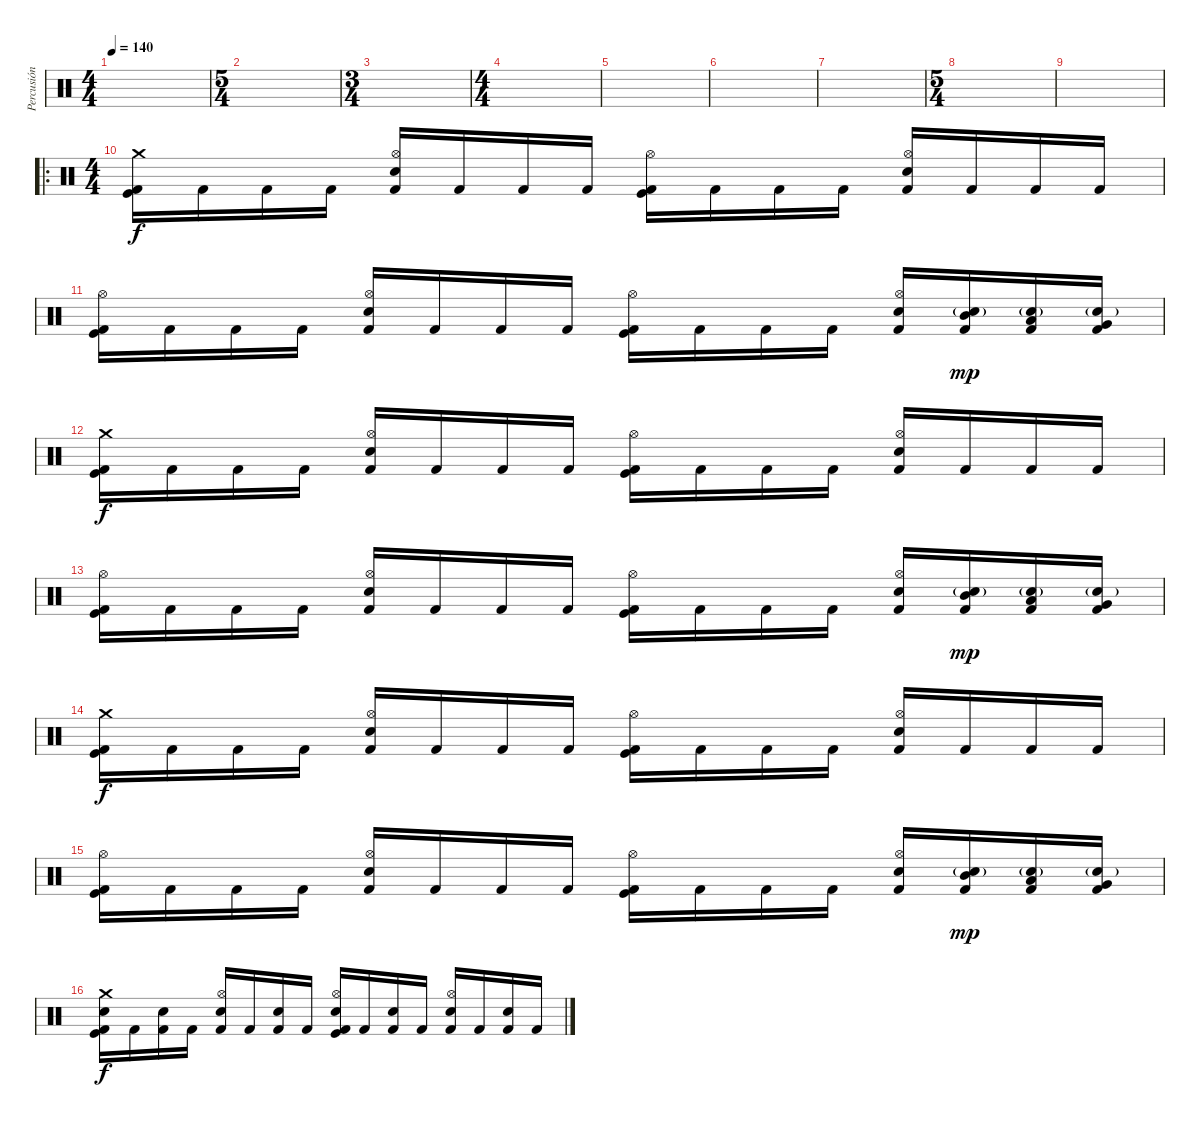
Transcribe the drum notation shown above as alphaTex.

\track ("Percusión" "Percusión") {instrument percussion}
\staff {score}
\articulation defaults
\ts (4 4)
\tempo 140
\clef neutral
\ks c
|
\ts (5 4)
|
\ts (3 4)
|
\ts (4 4)
|
|
|
|
\ts (5 4)
|
|
\ro
\ts (4 4)
("Crash medium (hit)" "Kick (hit)" "Kick (hit) 2").16 "Kick (hit) 2".16 "Kick (hit) 2".16 "Kick (hit) 2".16 ("Hi-Hat (open)" "Electric Snare (hit)" "Kick (hit) 2").16 "Kick (hit) 2".16 "Kick (hit) 2".16 "Kick (hit) 2".16 ("Hi-Hat (open)" "Kick (hit)" "Kick (hit) 2").16 "Kick (hit) 2".16 "Kick (hit) 2".16 "Kick (hit) 2".16 ("Hi-Hat (open)" "Electric Snare (hit)" "Kick (hit) 2").16 "Kick (hit) 2".16 "Kick (hit) 2".16 "Kick (hit) 2".16 |
("Hi-Hat (open)" "Kick (hit)" "Kick (hit) 2").16 "Kick (hit) 2".16 "Kick (hit) 2".16 "Kick (hit) 2".16 ("Hi-Hat (open)" "Electric Snare (hit)" "Kick (hit) 2").16 "Kick (hit) 2".16 "Kick (hit) 2".16 "Kick (hit) 2".16 ("Hi-Hat (open)" "Kick (hit)" "Kick (hit) 2").16 "Kick (hit) 2".16 "Kick (hit) 2".16 "Kick (hit) 2".16 ("Hi-Hat (open)" "Electric Snare (hit)" "Kick (hit) 2").16 ("Electric Snare (hit)"{g} "Mid Tom (hit)" "Kick (hit) 2").16{dy mp} ("Electric Snare (hit)"{g} "Low Tom (hit)" "Kick (hit) 2").16 ("Electric Snare (hit)"{g} "Very Low Tom (hit)" "Kick (hit) 2").16 |
("Crash medium (hit)" "Kick (hit)" "Kick (hit) 2").16{dy f} "Kick (hit) 2".16 "Kick (hit) 2".16 "Kick (hit) 2".16 ("Hi-Hat (open)" "Electric Snare (hit)" "Kick (hit) 2").16 "Kick (hit) 2".16 "Kick (hit) 2".16 "Kick (hit) 2".16 ("Hi-Hat (open)" "Kick (hit)" "Kick (hit) 2").16 "Kick (hit) 2".16 "Kick (hit) 2".16 "Kick (hit) 2".16 ("Hi-Hat (open)" "Electric Snare (hit)" "Kick (hit) 2").16 "Kick (hit) 2".16 "Kick (hit) 2".16 "Kick (hit) 2".16 |
("Hi-Hat (open)" "Kick (hit)" "Kick (hit) 2").16 "Kick (hit) 2".16 "Kick (hit) 2".16 "Kick (hit) 2".16 ("Hi-Hat (open)" "Electric Snare (hit)" "Kick (hit) 2").16 "Kick (hit) 2".16 "Kick (hit) 2".16 "Kick (hit) 2".16 ("Hi-Hat (open)" "Kick (hit)" "Kick (hit) 2").16 "Kick (hit) 2".16 "Kick (hit) 2".16 "Kick (hit) 2".16 ("Hi-Hat (open)" "Electric Snare (hit)" "Kick (hit) 2").16 ("Electric Snare (hit)"{g} "Mid Tom (hit)" "Kick (hit) 2").16{dy mp} ("Electric Snare (hit)"{g} "Low Tom (hit)" "Kick (hit) 2").16 ("Electric Snare (hit)"{g} "Very Low Tom (hit)" "Kick (hit) 2").16 |
("Crash medium (hit)" "Kick (hit)" "Kick (hit) 2").16{dy f} "Kick (hit) 2".16 "Kick (hit) 2".16 "Kick (hit) 2".16 ("Hi-Hat (open)" "Electric Snare (hit)" "Kick (hit) 2").16 "Kick (hit) 2".16 "Kick (hit) 2".16 "Kick (hit) 2".16 ("Hi-Hat (open)" "Kick (hit)" "Kick (hit) 2").16 "Kick (hit) 2".16 "Kick (hit) 2".16 "Kick (hit) 2".16 ("Hi-Hat (open)" "Electric Snare (hit)" "Kick (hit) 2").16 "Kick (hit) 2".16 "Kick (hit) 2".16 "Kick (hit) 2".16 |
("Hi-Hat (open)" "Kick (hit)" "Kick (hit) 2").16 "Kick (hit) 2".16 "Kick (hit) 2".16 "Kick (hit) 2".16 ("Hi-Hat (open)" "Electric Snare (hit)" "Kick (hit) 2").16 "Kick (hit) 2".16 "Kick (hit) 2".16 "Kick (hit) 2".16 ("Hi-Hat (open)" "Kick (hit)" "Kick (hit) 2").16 "Kick (hit) 2".16 "Kick (hit) 2".16 "Kick (hit) 2".16 ("Hi-Hat (open)" "Electric Snare (hit)" "Kick (hit) 2").16 ("Electric Snare (hit)"{g} "Mid Tom (hit)" "Kick (hit) 2").16{dy mp} ("Electric Snare (hit)"{g} "Low Tom (hit)" "Kick (hit) 2").16 ("Electric Snare (hit)"{g} "Very Low Tom (hit)" "Kick (hit) 2").16 |
("Crash medium (hit)" "Electric Snare (hit)" "Kick (hit)" "Kick (hit) 2").16{dy f} "Kick (hit) 2".16 ("Electric Snare (hit)" "Kick (hit) 2").16 "Kick (hit) 2".16 ("Hi-Hat (open)" "Electric Snare (hit)" "Kick (hit) 2").16 "Kick (hit) 2".16 ("Electric Snare (hit)" "Kick (hit) 2").16 "Kick (hit) 2".16 ("Hi-Hat (open)" "Electric Snare (hit)" "Kick (hit)" "Kick (hit) 2").16 "Kick (hit) 2".16 ("Electric Snare (hit)" "Kick (hit) 2").16 "Kick (hit) 2".16 ("Hi-Hat (open)" "Electric Snare (hit)" "Kick (hit) 2").16 "Kick (hit) 2".16 ("Electric Snare (hit)" "Kick (hit) 2").16 "Kick (hit) 2".16
